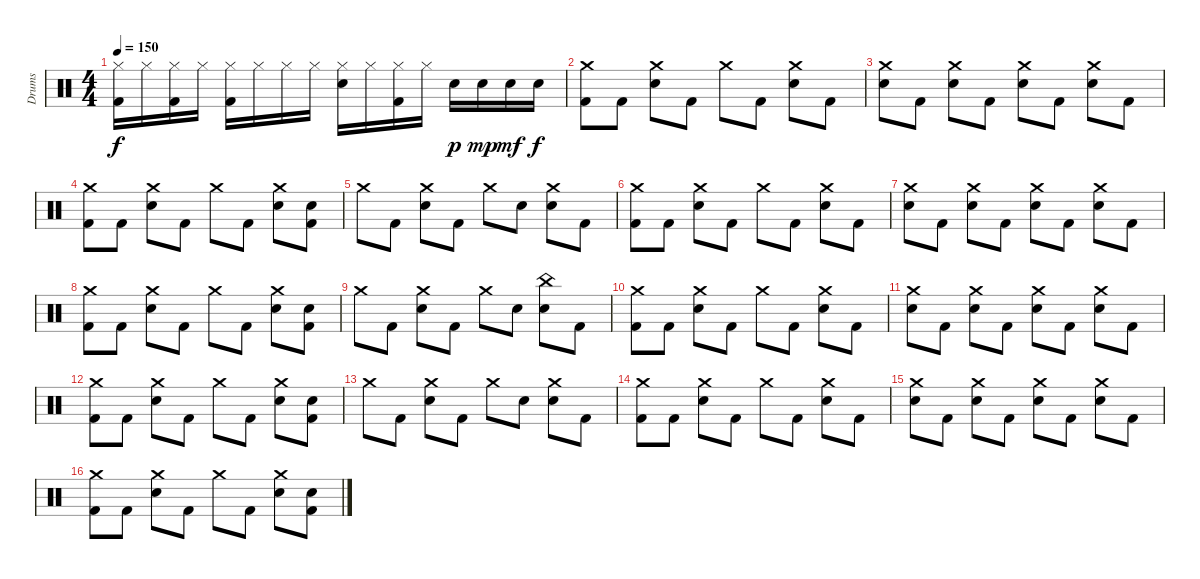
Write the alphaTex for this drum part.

\track ("Drums" "Drums") {instrument percussion}
\staff {score}
\articulation defaults
\ts (4 4)
\tempo 150
\clef neutral
\ks c
("Hi-Hat (closed)" "Kick (hit) 2").16{dy f} "Hi-Hat (closed)".16 ("Hi-Hat (closed)" "Kick (hit) 2").16 "Hi-Hat (closed)".16 ("Hi-Hat (closed)" "Kick (hit) 2").16 "Hi-Hat (closed)".16 "Hi-Hat (closed)".16 "Hi-Hat (closed)".16 ("Hi-Hat (closed)" "Electric Snare (hit)").16 "Hi-Hat (closed)".16 ("Hi-Hat (closed)" "Kick (hit) 2").16 "Hi-Hat (closed)".16 "Electric Snare (hit)".16{dy p} "Electric Snare (hit)".16{dy mp} "Electric Snare (hit)".16{dy mf} "Electric Snare (hit)".16{dy f} |
("Crash medium (hit)" "Kick (hit) 2").8 "Kick (hit) 2".8 ("Crash medium (hit)" "Electric Snare (hit)").8 "Kick (hit) 2".8 "Crash medium (hit)".8 "Kick (hit) 2".8 ("Crash medium (hit)" "Electric Snare (hit)").8 "Kick (hit) 2".8 |
("Crash medium (hit)" "Electric Snare (hit)").8 "Kick (hit) 2".8 ("Crash medium (hit)" "Electric Snare (hit)").8 "Kick (hit) 2".8 ("Crash medium (hit)" "Electric Snare (hit)").8 "Kick (hit) 2".8 ("Crash medium (hit)" "Electric Snare (hit)").8 "Kick (hit) 2".8 |
("Crash medium (hit)" "Kick (hit) 2").8 "Kick (hit) 2".8 ("Crash medium (hit)" "Electric Snare (hit)").8 "Kick (hit) 2".8 "Crash medium (hit)".8 "Kick (hit) 2".8 ("Crash medium (hit)" "Electric Snare (hit)").8 ("Electric Snare (hit)" "Kick (hit) 2").8 |
"Crash medium (hit)".8 "Kick (hit) 2".8 ("Crash medium (hit)" "Electric Snare (hit)").8 "Kick (hit) 2".8 "Crash medium (hit)".8 "Electric Snare (hit)".8 ("Crash medium (hit)" "Electric Snare (hit)").8 "Kick (hit) 2".8 |
("Crash medium (hit)" "Kick (hit) 2").8 "Kick (hit) 2".8 ("Crash medium (hit)" "Electric Snare (hit)").8 "Kick (hit) 2".8 "Crash medium (hit)".8 "Kick (hit) 2".8 ("Crash medium (hit)" "Electric Snare (hit)").8 "Kick (hit) 2".8 |
("Crash medium (hit)" "Electric Snare (hit)").8 "Kick (hit) 2".8 ("Crash medium (hit)" "Electric Snare (hit)").8 "Kick (hit) 2".8 ("Crash medium (hit)" "Electric Snare (hit)").8 "Kick (hit) 2".8 ("Crash medium (hit)" "Electric Snare (hit)").8 "Kick (hit) 2".8 |
("Crash medium (hit)" "Kick (hit) 2").8 "Kick (hit) 2".8 ("Crash medium (hit)" "Electric Snare (hit)").8 "Kick (hit) 2".8 "Crash medium (hit)".8 "Kick (hit) 2".8 ("Crash medium (hit)" "Electric Snare (hit)").8 ("Electric Snare (hit)" "Kick (hit) 2").8 |
"Crash medium (hit)".8 "Kick (hit) 2".8 ("Crash medium (hit)" "Electric Snare (hit)").8 "Kick (hit) 2".8 "Crash medium (hit)".8 "Electric Snare (hit)".8 ("China (hit)" "Electric Snare (hit)").8 "Kick (hit) 2".8 |
("Crash medium (hit)" "Kick (hit) 2").8 "Kick (hit) 2".8 ("Crash medium (hit)" "Electric Snare (hit)").8 "Kick (hit) 2".8 "Crash medium (hit)".8 "Kick (hit) 2".8 ("Crash medium (hit)" "Electric Snare (hit)").8 "Kick (hit) 2".8 |
("Crash medium (hit)" "Electric Snare (hit)").8 "Kick (hit) 2".8 ("Crash medium (hit)" "Electric Snare (hit)").8 "Kick (hit) 2".8 ("Crash medium (hit)" "Electric Snare (hit)").8 "Kick (hit) 2".8 ("Crash medium (hit)" "Electric Snare (hit)").8 "Kick (hit) 2".8 |
("Crash medium (hit)" "Kick (hit) 2").8 "Kick (hit) 2".8 ("Crash medium (hit)" "Electric Snare (hit)").8 "Kick (hit) 2".8 "Crash medium (hit)".8 "Kick (hit) 2".8 ("Crash medium (hit)" "Electric Snare (hit)").8 ("Electric Snare (hit)" "Kick (hit) 2").8 |
"Crash medium (hit)".8 "Kick (hit) 2".8 ("Crash medium (hit)" "Electric Snare (hit)").8 "Kick (hit) 2".8 "Crash medium (hit)".8 "Electric Snare (hit)".8 ("Crash medium (hit)" "Electric Snare (hit)").8 "Kick (hit) 2".8 |
("Crash medium (hit)" "Kick (hit) 2").8 "Kick (hit) 2".8 ("Crash medium (hit)" "Electric Snare (hit)").8 "Kick (hit) 2".8 "Crash medium (hit)".8 "Kick (hit) 2".8 ("Crash medium (hit)" "Electric Snare (hit)").8 "Kick (hit) 2".8 |
("Crash medium (hit)" "Electric Snare (hit)").8 "Kick (hit) 2".8 ("Crash medium (hit)" "Electric Snare (hit)").8 "Kick (hit) 2".8 ("Crash medium (hit)" "Electric Snare (hit)").8 "Kick (hit) 2".8 ("Crash medium (hit)" "Electric Snare (hit)").8 "Kick (hit) 2".8 |
("Crash medium (hit)" "Kick (hit) 2").8 "Kick (hit) 2".8 ("Crash medium (hit)" "Electric Snare (hit)").8 "Kick (hit) 2".8 "Crash medium (hit)".8 "Kick (hit) 2".8 ("Crash medium (hit)" "Electric Snare (hit)").8 ("Electric Snare (hit)" "Kick (hit) 2").8
